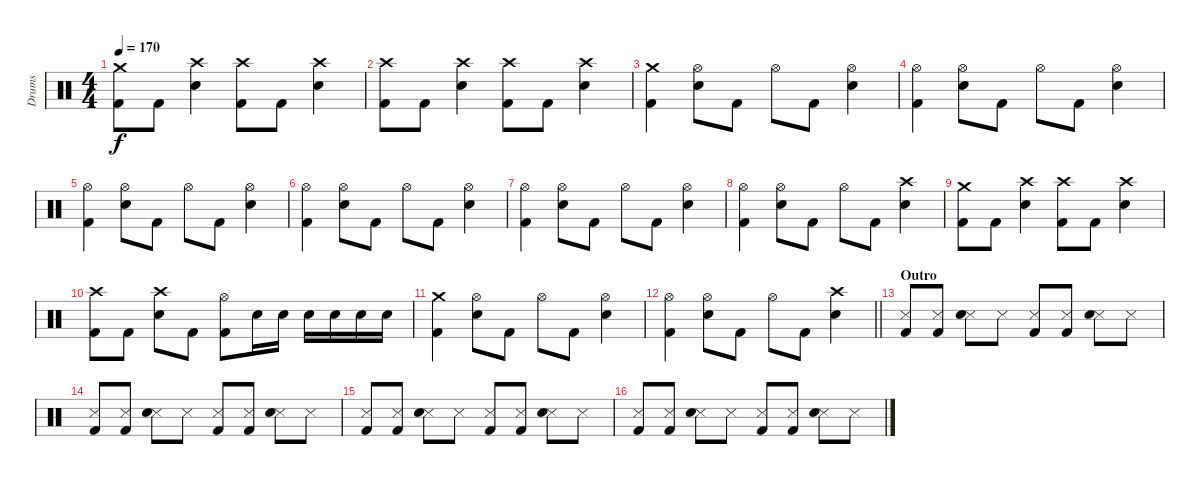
\track ("Drums" "Drums") {instrument percussion}
\staff {score}
\articulation defaults
\ts (4 4)
\tempo 170
\clef neutral
\ks c
("Crash medium (hit)" "Kick (hit) 2").8{dy f} "Kick (hit) 2".8 ("Crash high (hit)" "Electric Snare (hit)").4 ("Crash high (hit)" "Kick (hit) 2").8 "Kick (hit) 2".8 ("Crash high (hit)" "Electric Snare (hit)").4 |
("Crash high (hit)" "Kick (hit) 2").8 "Kick (hit) 2".8 ("Crash high (hit)" "Electric Snare (hit)").4 ("Crash high (hit)" "Kick (hit) 2").8 "Kick (hit) 2".8 ("Crash high (hit)" "Electric Snare (hit)").4 |
("Crash medium (hit)" "Kick (hit) 2").4 ("Hi-Hat (open)" "Electric Snare (hit)").8 "Kick (hit) 2".8 "Hi-Hat (open)".8 "Kick (hit) 2".8 ("Hi-Hat (open)" "Electric Snare (hit)").4 |
("Hi-Hat (open)" "Kick (hit) 2").4 ("Hi-Hat (open)" "Electric Snare (hit)").8 "Kick (hit) 2".8 "Hi-Hat (open)".8 "Kick (hit) 2".8 ("Hi-Hat (open)" "Electric Snare (hit)").4 |
("Hi-Hat (open)" "Kick (hit) 2").4 ("Hi-Hat (open)" "Electric Snare (hit)").8 "Kick (hit) 2".8 "Hi-Hat (open)".8 "Kick (hit) 2".8 ("Hi-Hat (open)" "Electric Snare (hit)").4 |
("Hi-Hat (open)" "Kick (hit) 2").4 ("Hi-Hat (open)" "Electric Snare (hit)").8 "Kick (hit) 2".8 "Hi-Hat (open)".8 "Kick (hit) 2".8 ("Hi-Hat (open)" "Electric Snare (hit)").4 |
("Hi-Hat (open)" "Kick (hit) 2").4 ("Hi-Hat (open)" "Electric Snare (hit)").8 "Kick (hit) 2".8 "Hi-Hat (open)".8 "Kick (hit) 2".8 ("Hi-Hat (open)" "Electric Snare (hit)").4 |
("Hi-Hat (open)" "Kick (hit) 2").4 ("Hi-Hat (open)" "Electric Snare (hit)").8 "Kick (hit) 2".8 "Hi-Hat (open)".8 "Kick (hit) 2".8 ("Crash high (hit)" "Electric Snare (hit)").4 |
("Crash medium (hit)" "Kick (hit) 2").8 "Kick (hit) 2".8 ("Crash high (hit)" "Electric Snare (hit)").4 ("Crash high (hit)" "Kick (hit) 2").8 "Kick (hit) 2".8 ("Crash high (hit)" "Electric Snare (hit)").4 |
("Crash high (hit)" "Kick (hit) 2").8 "Kick (hit) 2".8 ("Crash high (hit)" "Electric Snare (hit)").8 "Kick (hit) 2".8 ("Hi-Hat (open)" "Kick (hit) 2").8 "Electric Snare (hit)".16 "Electric Snare (hit)".16 "Electric Snare (hit)".16 "Electric Snare (hit)".16 "Electric Snare (hit)".16 "Electric Snare (hit)".16 |
("Crash medium (hit)" "Kick (hit) 2").4 ("Hi-Hat (open)" "Electric Snare (hit)").8 "Kick (hit) 2".8 "Hi-Hat (open)".8 "Kick (hit) 2".8 ("Hi-Hat (open)" "Electric Snare (hit)").4 |
\barLineRight lightlight
("Hi-Hat (open)" "Kick (hit) 2").4 ("Hi-Hat (open)" "Electric Snare (hit)").8 "Kick (hit) 2".8 "Hi-Hat (open)".8 "Kick (hit) 2".8 ("Crash high (hit)" "Electric Snare (hit)").4 |
\section ("" "Outro")
("Metronome (hit)" "Kick (hit) 2").8 ("Metronome (hit)" "Kick (hit) 2").8 ("Metronome (hit)" "Electric Snare (hit)").8 "Metronome (hit)".8 ("Metronome (hit)" "Kick (hit) 2").8 ("Metronome (hit)" "Kick (hit) 2").8 ("Metronome (hit)" "Electric Snare (hit)").8 "Metronome (hit)".8 |
("Metronome (hit)" "Kick (hit) 2").8 ("Metronome (hit)" "Kick (hit) 2").8 ("Metronome (hit)" "Electric Snare (hit)").8 "Metronome (hit)".8 ("Metronome (hit)" "Kick (hit) 2").8 ("Metronome (hit)" "Kick (hit) 2").8 ("Metronome (hit)" "Electric Snare (hit)").8 "Metronome (hit)".8 |
("Metronome (hit)" "Kick (hit) 2").8 ("Metronome (hit)" "Kick (hit) 2").8 ("Metronome (hit)" "Electric Snare (hit)").8 "Metronome (hit)".8 ("Metronome (hit)" "Kick (hit) 2").8 ("Metronome (hit)" "Kick (hit) 2").8 ("Metronome (hit)" "Electric Snare (hit)").8 "Metronome (hit)".8 |
("Metronome (hit)" "Kick (hit) 2").8 ("Metronome (hit)" "Kick (hit) 2").8 ("Metronome (hit)" "Electric Snare (hit)").8 "Metronome (hit)".8 ("Metronome (hit)" "Kick (hit) 2").8 ("Metronome (hit)" "Kick (hit) 2").8 ("Metronome (hit)" "Electric Snare (hit)").8 "Metronome (hit)".8
